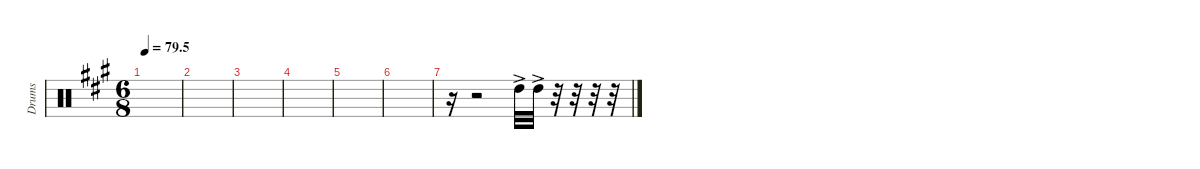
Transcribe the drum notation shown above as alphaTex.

\defaultSystemsLayout 4
\hideDynamics
\bracketExtendMode nobrackets
\otherSystemsTrackNameOrientation horizontal
\track ("Tom 01" "Drums") {instrument percussion}
\staff {score}
\articulation defaults
\ts (6 8)
\tempo
79.5
\accidentals auto
\clef neutral
\ottava regular
\simile none
\scale
0.333333
\ks a
|
\scale
0.333333 |
\scale
0.333333 |
\scale
0.333333 |
\scale
0.333333 |
\scale
0.333333 |
\scale
0.333333 r.16 r.2 "High Tom (hit)"{ac acc forcenatural}.32 "High Tom (hit)"{ac acc forcenatural}.32 r.32 r.32 r.32 r.32 |
\scale
0.333333 |
\scale
0.333333 |
\scale
0.333333 |
\scale
0.333333 |
\scale
0.333333 |
\scale
0.333333 |
\scale
0.333333 |
\scale
0.333333 |
\scale
0.333333
